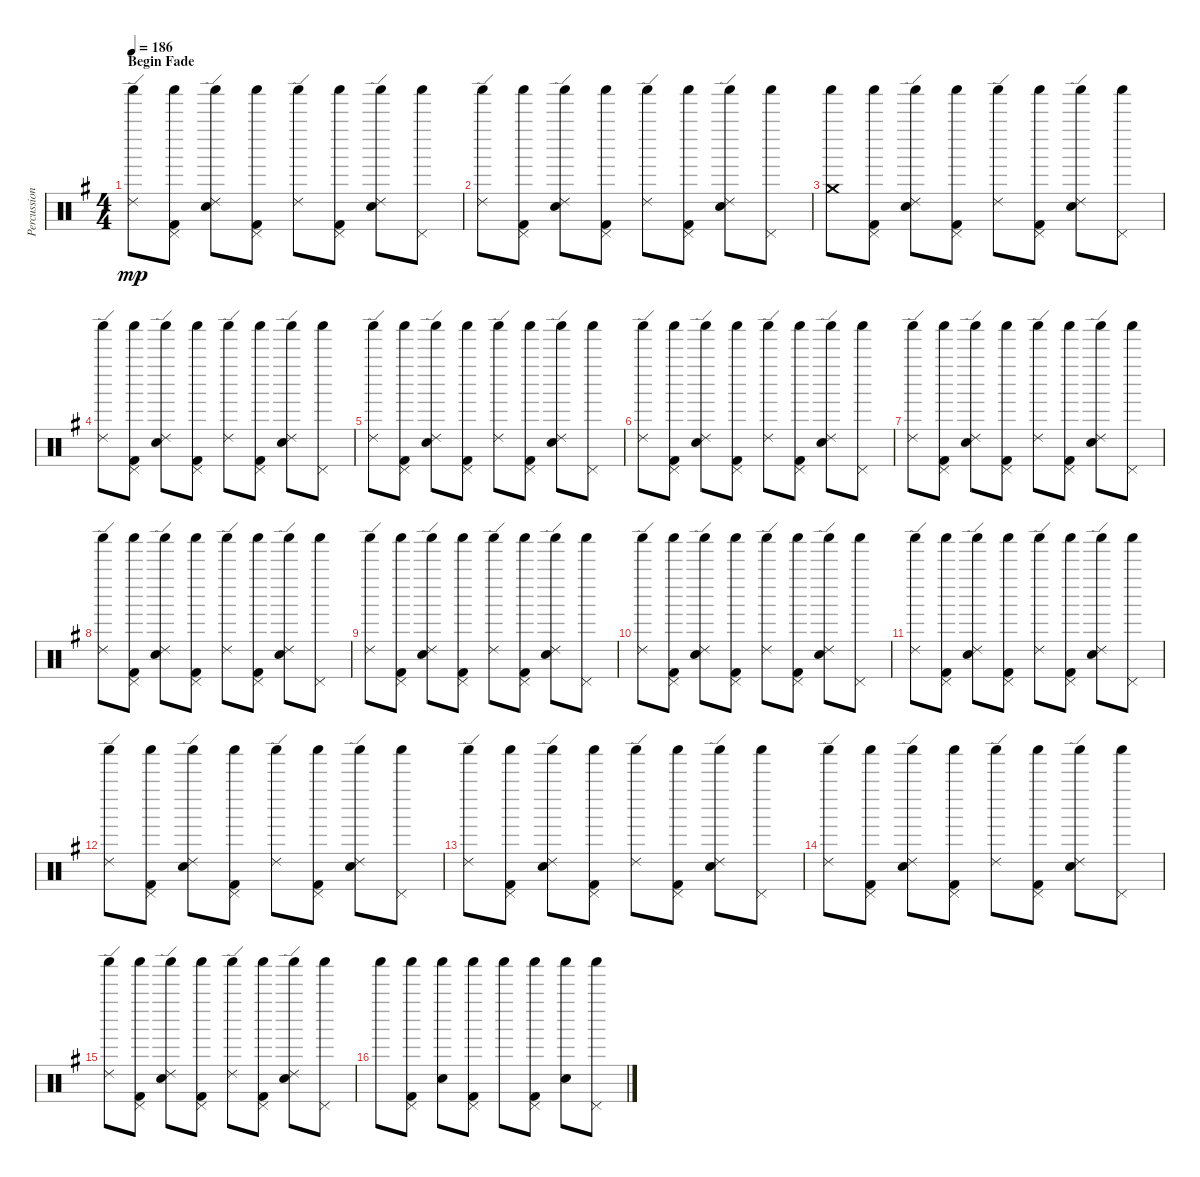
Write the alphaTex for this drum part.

\track ("Percussion" "Percussion") {instrument percussion}
\staff {score}
\articulation defaults
\ts (4 4)
\section ("" "Begin Fade")
\tempo 186
\clef neutral
\ks g
("Shaker (hit)" "Ride (edge) 2").8{dy mp} ("Shaker (hit)" "Pedal Hi-Hat (hit)" "Kick (hit) 2").8 ("Shaker (hit)" "Electric Snare (hit)" "Ride (edge) 2").8 ("Shaker (hit)" "Pedal Hi-Hat (hit)" "Kick (hit) 2").8 ("Shaker (hit)" "Ride (edge) 2").8 ("Shaker (hit)" "Pedal Hi-Hat (hit)" "Kick (hit) 2").8 ("Shaker (hit)" "Electric Snare (hit)" "Ride (edge) 2").8 ("Shaker (hit)" "Pedal Hi-Hat (hit)").8 |
("Shaker (hit)" "Ride (edge) 2").8 ("Shaker (hit)" "Pedal Hi-Hat (hit)" "Kick (hit) 2").8 ("Shaker (hit)" "Electric Snare (hit)" "Ride (edge) 2").8 ("Shaker (hit)" "Pedal Hi-Hat (hit)" "Kick (hit) 2").8 ("Shaker (hit)" "Ride (edge) 2").8 ("Shaker (hit)" "Pedal Hi-Hat (hit)" "Kick (hit) 2").8 ("Shaker (hit)" "Electric Snare (hit)" "Ride (edge) 2").8 ("Shaker (hit)" "Pedal Hi-Hat (hit)").8 |
("Shaker (hit)" "Crash medium (hit)").8 ("Shaker (hit)" "Pedal Hi-Hat (hit)" "Kick (hit) 2").8 ("Shaker (hit)" "Electric Snare (hit)" "Ride (edge) 2").8 ("Shaker (hit)" "Pedal Hi-Hat (hit)" "Kick (hit) 2").8 ("Shaker (hit)" "Ride (edge) 2").8 ("Shaker (hit)" "Pedal Hi-Hat (hit)" "Kick (hit) 2").8 ("Shaker (hit)" "Electric Snare (hit)" "Ride (edge) 2").8 ("Shaker (hit)" "Pedal Hi-Hat (hit)").8 |
("Shaker (hit)" "Ride (edge) 2").8 ("Shaker (hit)" "Pedal Hi-Hat (hit)" "Kick (hit) 2").8 ("Shaker (hit)" "Electric Snare (hit)" "Ride (edge) 2").8 ("Shaker (hit)" "Pedal Hi-Hat (hit)" "Kick (hit) 2").8 ("Shaker (hit)" "Ride (edge) 2").8 ("Shaker (hit)" "Pedal Hi-Hat (hit)" "Kick (hit) 2").8 ("Shaker (hit)" "Electric Snare (hit)" "Ride (edge) 2").8 ("Shaker (hit)" "Pedal Hi-Hat (hit)").8 |
("Shaker (hit)" "Ride (edge) 2").8 ("Shaker (hit)" "Pedal Hi-Hat (hit)" "Kick (hit) 2").8 ("Shaker (hit)" "Electric Snare (hit)" "Ride (edge) 2").8 ("Shaker (hit)" "Pedal Hi-Hat (hit)" "Kick (hit) 2").8 ("Shaker (hit)" "Ride (edge) 2").8 ("Shaker (hit)" "Pedal Hi-Hat (hit)" "Kick (hit) 2").8 ("Shaker (hit)" "Electric Snare (hit)" "Ride (edge) 2").8 ("Shaker (hit)" "Pedal Hi-Hat (hit)").8 |
("Shaker (hit)" "Ride (edge) 2").8 ("Shaker (hit)" "Pedal Hi-Hat (hit)" "Kick (hit) 2").8 ("Shaker (hit)" "Electric Snare (hit)" "Ride (edge) 2").8 ("Shaker (hit)" "Pedal Hi-Hat (hit)" "Kick (hit) 2").8 ("Shaker (hit)" "Ride (edge) 2").8 ("Shaker (hit)" "Pedal Hi-Hat (hit)" "Kick (hit) 2").8 ("Shaker (hit)" "Electric Snare (hit)" "Ride (edge) 2").8 ("Shaker (hit)" "Pedal Hi-Hat (hit)").8 |
("Shaker (hit)" "Ride (edge) 2").8 ("Shaker (hit)" "Pedal Hi-Hat (hit)" "Kick (hit) 2").8 ("Shaker (hit)" "Electric Snare (hit)" "Ride (edge) 2").8 ("Shaker (hit)" "Pedal Hi-Hat (hit)" "Kick (hit) 2").8 ("Shaker (hit)" "Ride (edge) 2").8 ("Shaker (hit)" "Pedal Hi-Hat (hit)" "Kick (hit) 2").8 ("Shaker (hit)" "Electric Snare (hit)" "Ride (edge) 2").8 ("Shaker (hit)" "Pedal Hi-Hat (hit)").8 |
("Shaker (hit)" "Ride (edge) 2").8 ("Shaker (hit)" "Pedal Hi-Hat (hit)" "Kick (hit) 2").8 ("Shaker (hit)" "Electric Snare (hit)" "Ride (edge) 2").8 ("Shaker (hit)" "Pedal Hi-Hat (hit)" "Kick (hit) 2").8 ("Shaker (hit)" "Ride (edge) 2").8 ("Shaker (hit)" "Pedal Hi-Hat (hit)" "Kick (hit) 2").8 ("Shaker (hit)" "Electric Snare (hit)" "Ride (edge) 2").8 ("Shaker (hit)" "Pedal Hi-Hat (hit)").8 |
("Shaker (hit)" "Ride (edge) 2").8 ("Shaker (hit)" "Pedal Hi-Hat (hit)" "Kick (hit) 2").8 ("Shaker (hit)" "Electric Snare (hit)" "Ride (edge) 2").8 ("Shaker (hit)" "Pedal Hi-Hat (hit)" "Kick (hit) 2").8 ("Shaker (hit)" "Ride (edge) 2").8 ("Shaker (hit)" "Pedal Hi-Hat (hit)" "Kick (hit) 2").8 ("Shaker (hit)" "Electric Snare (hit)" "Ride (edge) 2").8 ("Shaker (hit)" "Pedal Hi-Hat (hit)").8 |
("Shaker (hit)" "Ride (edge) 2").8 ("Shaker (hit)" "Pedal Hi-Hat (hit)" "Kick (hit) 2").8 ("Shaker (hit)" "Electric Snare (hit)" "Ride (edge) 2").8 ("Shaker (hit)" "Pedal Hi-Hat (hit)" "Kick (hit) 2").8 ("Shaker (hit)" "Ride (edge) 2").8 ("Shaker (hit)" "Pedal Hi-Hat (hit)" "Kick (hit) 2").8 ("Shaker (hit)" "Electric Snare (hit)" "Ride (edge) 2").8 ("Shaker (hit)" "Pedal Hi-Hat (hit)").8 |
("Shaker (hit)" "Ride (edge) 2").8 ("Shaker (hit)" "Pedal Hi-Hat (hit)" "Kick (hit) 2").8 ("Shaker (hit)" "Electric Snare (hit)" "Ride (edge) 2").8 ("Shaker (hit)" "Pedal Hi-Hat (hit)" "Kick (hit) 2").8 ("Shaker (hit)" "Ride (edge) 2").8 ("Shaker (hit)" "Pedal Hi-Hat (hit)" "Kick (hit) 2").8 ("Shaker (hit)" "Electric Snare (hit)" "Ride (edge) 2").8 ("Shaker (hit)" "Pedal Hi-Hat (hit)").8 |
("Shaker (hit)" "Ride (edge) 2").8 ("Shaker (hit)" "Pedal Hi-Hat (hit)" "Kick (hit) 2").8 ("Shaker (hit)" "Electric Snare (hit)" "Ride (edge) 2").8 ("Shaker (hit)" "Pedal Hi-Hat (hit)" "Kick (hit) 2").8 ("Shaker (hit)" "Ride (edge) 2").8 ("Shaker (hit)" "Pedal Hi-Hat (hit)" "Kick (hit) 2").8 ("Shaker (hit)" "Electric Snare (hit)" "Ride (edge) 2").8 ("Shaker (hit)" "Pedal Hi-Hat (hit)").8 |
("Shaker (hit)" "Ride (edge) 2").8 ("Shaker (hit)" "Pedal Hi-Hat (hit)" "Kick (hit) 2").8 ("Shaker (hit)" "Electric Snare (hit)" "Ride (edge) 2").8 ("Shaker (hit)" "Pedal Hi-Hat (hit)" "Kick (hit) 2").8 ("Shaker (hit)" "Ride (edge) 2").8 ("Shaker (hit)" "Pedal Hi-Hat (hit)" "Kick (hit) 2").8 ("Shaker (hit)" "Electric Snare (hit)" "Ride (edge) 2").8 ("Shaker (hit)" "Pedal Hi-Hat (hit)").8 |
("Shaker (hit)" "Ride (edge) 2").8 ("Shaker (hit)" "Pedal Hi-Hat (hit)" "Kick (hit) 2").8 ("Shaker (hit)" "Electric Snare (hit)" "Ride (edge) 2").8 ("Shaker (hit)" "Pedal Hi-Hat (hit)" "Kick (hit) 2").8 ("Shaker (hit)" "Ride (edge) 2").8 ("Shaker (hit)" "Pedal Hi-Hat (hit)" "Kick (hit) 2").8 ("Shaker (hit)" "Electric Snare (hit)" "Ride (edge) 2").8 ("Shaker (hit)" "Pedal Hi-Hat (hit)").8 |
("Shaker (hit)" "Ride (edge) 2").8 ("Shaker (hit)" "Pedal Hi-Hat (hit)" "Kick (hit) 2").8 ("Shaker (hit)" "Electric Snare (hit)" "Ride (edge) 2").8 ("Shaker (hit)" "Pedal Hi-Hat (hit)" "Kick (hit) 2").8 ("Shaker (hit)" "Ride (edge) 2").8 ("Shaker (hit)" "Pedal Hi-Hat (hit)" "Kick (hit) 2").8 ("Shaker (hit)" "Electric Snare (hit)" "Ride (edge) 2").8 ("Shaker (hit)" "Pedal Hi-Hat (hit)").8 |
"Shaker (hit)".8 ("Shaker (hit)" "Pedal Hi-Hat (hit)" "Kick (hit) 2").8 ("Shaker (hit)" "Electric Snare (hit)").8 ("Shaker (hit)" "Pedal Hi-Hat (hit)" "Kick (hit) 2").8 "Shaker (hit)".8 ("Shaker (hit)" "Pedal Hi-Hat (hit)" "Kick (hit) 2").8 ("Shaker (hit)" "Electric Snare (hit)").8 ("Shaker (hit)" "Pedal Hi-Hat (hit)").8
